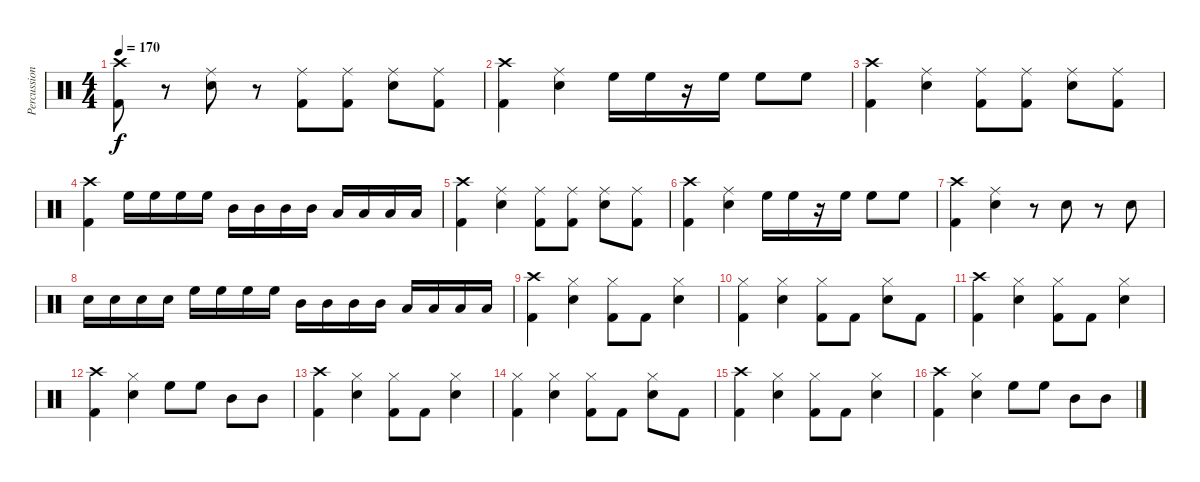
\track ("Percussions" "Percussion") {instrument percussion}
\staff {score}
\articulation defaults
\ts (4 4)
\tempo 170
\clef neutral
\ks c
("Kick (hit) 2" "Crash high (hit)").8{dy f} r.8 ("Ride (middle)" "Snare (hit) 2").8 r.8 ("Ride (middle)" "Kick (hit) 2").8 ("Ride (middle)" "Kick (hit) 2").8 ("Ride (middle)" "Snare (hit) 2").8 ("Ride (middle)" "Kick (hit) 2").8 |
("Kick (hit) 2" "Crash high (hit)").4 ("Snare (hit) 2" "Ride (middle)").4 "High Floor Tom (hit)".16 "High Floor Tom (hit)".16 r.16 "High Floor Tom (hit)".16 "High Floor Tom (hit)".8 "High Floor Tom (hit)".8 |
("Kick (hit) 2" "Crash high (hit)").4 ("Ride (middle)" "Snare (hit) 2").4 ("Kick (hit) 2" "Ride (middle)").8 ("Kick (hit) 2" "Ride (middle)").8 ("Snare (hit) 2" "Ride (middle)").8 ("Kick (hit) 2" "Ride (middle)").8 |
("Crash high (hit)" "Kick (hit) 2").4 "High Floor Tom (hit)".16 "High Floor Tom (hit)".16 "High Floor Tom (hit)".16 "High Floor Tom (hit)".16 "Mid Tom (hit)".16 "Mid Tom (hit)".16 "Mid Tom (hit)".16 "Mid Tom (hit)".16 "Low Floor Tom (hit)".16 "Low Floor Tom (hit)".16 "Low Floor Tom (hit)".16 "Low Floor Tom (hit)".16 |
("Kick (hit) 2" "Crash high (hit)").4 ("Ride (middle)" "Snare (hit) 2").4 ("Kick (hit) 2" "Ride (middle)").8 ("Kick (hit) 2" "Ride (middle)").8 ("Snare (hit) 2" "Ride (middle)").8 ("Kick (hit) 2" "Ride (middle)").8 |
("Crash high (hit)" "Kick (hit) 2").4 ("Ride (middle)" "Snare (hit) 2").4 "High Floor Tom (hit)".16 "High Floor Tom (hit)".16 r.16 "High Floor Tom (hit)".16 "High Floor Tom (hit)".8 "High Floor Tom (hit)".8 |
("Kick (hit) 2" "Crash high (hit)").4 ("Ride (middle)" "Snare (hit) 2").4 r.8 "Snare (hit) 2".8 r.8 "Snare (hit) 2".8 |
"Snare (hit) 2".16 "Snare (hit) 2".16 "Snare (hit) 2".16 "Snare (hit) 2".16 "High Floor Tom (hit)".16 "High Floor Tom (hit)".16 "High Floor Tom (hit)".16 "High Floor Tom (hit)".16 "Mid Tom (hit)".16 "Mid Tom (hit)".16 "Mid Tom (hit)".16 "Mid Tom (hit)".16 "Low Floor Tom (hit)".16 "Low Floor Tom (hit)".16 "Low Floor Tom (hit)".16 "Low Floor Tom (hit)".16 |
("Kick (hit) 2" "Crash high (hit)").4 ("Snare (hit) 2" "Hi-Hat (closed)").4 ("Hi-Hat (closed)" "Kick (hit) 2").8 "Kick (hit) 2".8 ("Hi-Hat (closed)" "Snare (hit) 2").4 |
("Hi-Hat (closed)" "Kick (hit) 2").4 ("Hi-Hat (closed)" "Snare (hit) 2").4 ("Hi-Hat (closed)" "Kick (hit) 2").8 "Kick (hit) 2".8 ("Hi-Hat (closed)" "Snare (hit) 2").8 "Kick (hit) 2".8 |
("Kick (hit) 2" "Crash high (hit)").4 ("Snare (hit) 2" "Hi-Hat (closed)").4 ("Hi-Hat (closed)" "Kick (hit) 2").8 "Kick (hit) 2".8 ("Hi-Hat (closed)" "Snare (hit) 2").4 |
("Kick (hit) 2" "Crash high (hit)").4 ("Hi-Hat (closed)" "Snare (hit) 2").4 "High Floor Tom (hit)".8 "High Floor Tom (hit)".8 "Mid Tom (hit)".8 "Mid Tom (hit)".8 |
("Kick (hit) 2" "Crash high (hit)").4 ("Snare (hit) 2" "Hi-Hat (closed)").4 ("Hi-Hat (closed)" "Kick (hit) 2").8 "Kick (hit) 2".8 ("Hi-Hat (closed)" "Snare (hit) 2").4 |
("Hi-Hat (closed)" "Kick (hit) 2").4 ("Hi-Hat (closed)" "Snare (hit) 2").4 ("Hi-Hat (closed)" "Kick (hit) 2").8 "Kick (hit) 2".8 ("Hi-Hat (closed)" "Snare (hit) 2").8 "Kick (hit) 2".8 |
("Kick (hit) 2" "Crash high (hit)").4 ("Snare (hit) 2" "Hi-Hat (closed)").4 ("Hi-Hat (closed)" "Kick (hit) 2").8 "Kick (hit) 2".8 ("Hi-Hat (closed)" "Snare (hit) 2").4 |
("Kick (hit) 2" "Crash high (hit)").4 ("Hi-Hat (closed)" "Snare (hit) 2").4 "High Floor Tom (hit)".8 "High Floor Tom (hit)".8 "Mid Tom (hit)".8 "Mid Tom (hit)".8
